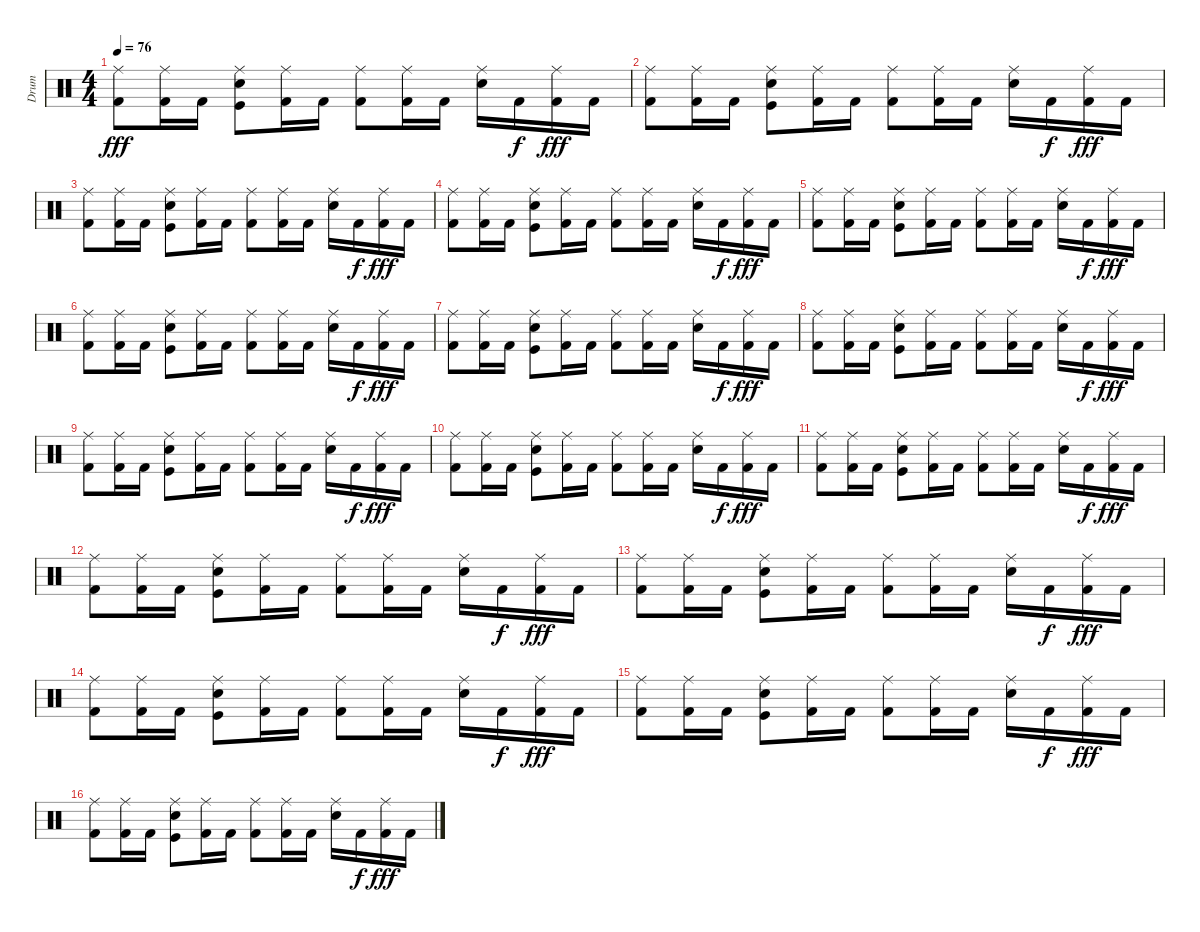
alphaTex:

\track ("Drum" "Drum") {instrument percussion}
\staff {score}
\articulation defaults
\ts (4 4)
\tempo 76
\clef neutral
\ks c
("Kick (hit) 2" "Ride (middle)").8{dy fff} ("Kick (hit) 2" "Ride (middle)").16 "Kick (hit) 2".16 ("Kick (hit)" "Electric Snare (hit)" "Ride (middle)").8 ("Kick (hit) 2" "Ride (middle)").16 "Kick (hit) 2".16 ("Kick (hit) 2" "Ride (middle)").8 ("Kick (hit) 2" "Ride (middle)").16 "Kick (hit) 2".16 ("Electric Snare (hit)" "Ride (middle)").16 "Kick (hit) 2".16{dy f} ("Kick (hit) 2" "Ride (middle)").16{dy fff} "Kick (hit) 2".16 |
("Kick (hit) 2" "Ride (middle)").8 ("Kick (hit) 2" "Ride (middle)").16 "Kick (hit) 2".16 ("Kick (hit)" "Electric Snare (hit)" "Ride (middle)").8 ("Kick (hit) 2" "Ride (middle)").16 "Kick (hit) 2".16 ("Kick (hit) 2" "Ride (middle)").8 ("Kick (hit) 2" "Ride (middle)").16 "Kick (hit) 2".16 ("Electric Snare (hit)" "Ride (middle)").16 "Kick (hit) 2".16{dy f} ("Kick (hit) 2" "Ride (middle)").16{dy fff} "Kick (hit) 2".16 |
("Kick (hit) 2" "Ride (middle)").8 ("Kick (hit) 2" "Ride (middle)").16 "Kick (hit) 2".16 ("Kick (hit)" "Electric Snare (hit)" "Ride (middle)").8 ("Kick (hit) 2" "Ride (middle)").16 "Kick (hit) 2".16 ("Kick (hit) 2" "Ride (middle)").8 ("Kick (hit) 2" "Ride (middle)").16 "Kick (hit) 2".16 ("Electric Snare (hit)" "Ride (middle)").16 "Kick (hit) 2".16{dy f} ("Kick (hit) 2" "Ride (middle)").16{dy fff} "Kick (hit) 2".16 |
("Kick (hit) 2" "Ride (middle)").8 ("Kick (hit) 2" "Ride (middle)").16 "Kick (hit) 2".16 ("Kick (hit)" "Electric Snare (hit)" "Ride (middle)").8 ("Kick (hit) 2" "Ride (middle)").16 "Kick (hit) 2".16 ("Kick (hit) 2" "Ride (middle)").8 ("Kick (hit) 2" "Ride (middle)").16 "Kick (hit) 2".16 ("Electric Snare (hit)" "Ride (middle)").16 "Kick (hit) 2".16{dy f} ("Kick (hit) 2" "Ride (middle)").16{dy fff} "Kick (hit) 2".16 |
("Kick (hit) 2" "Ride (middle)").8 ("Kick (hit) 2" "Ride (middle)").16 "Kick (hit) 2".16 ("Kick (hit)" "Electric Snare (hit)" "Ride (middle)").8 ("Kick (hit) 2" "Ride (middle)").16 "Kick (hit) 2".16 ("Kick (hit) 2" "Ride (middle)").8 ("Kick (hit) 2" "Ride (middle)").16 "Kick (hit) 2".16 ("Electric Snare (hit)" "Ride (middle)").16 "Kick (hit) 2".16{dy f} ("Kick (hit) 2" "Ride (middle)").16{dy fff} "Kick (hit) 2".16 |
("Kick (hit) 2" "Ride (middle)").8 ("Kick (hit) 2" "Ride (middle)").16 "Kick (hit) 2".16 ("Kick (hit)" "Electric Snare (hit)" "Ride (middle)").8 ("Kick (hit) 2" "Ride (middle)").16 "Kick (hit) 2".16 ("Kick (hit) 2" "Ride (middle)").8 ("Kick (hit) 2" "Ride (middle)").16 "Kick (hit) 2".16 ("Electric Snare (hit)" "Ride (middle)").16 "Kick (hit) 2".16{dy f} ("Kick (hit) 2" "Ride (middle)").16{dy fff} "Kick (hit) 2".16 |
("Kick (hit) 2" "Ride (middle)").8 ("Kick (hit) 2" "Ride (middle)").16 "Kick (hit) 2".16 ("Kick (hit)" "Electric Snare (hit)" "Ride (middle)").8 ("Kick (hit) 2" "Ride (middle)").16 "Kick (hit) 2".16 ("Kick (hit) 2" "Ride (middle)").8 ("Kick (hit) 2" "Ride (middle)").16 "Kick (hit) 2".16 ("Electric Snare (hit)" "Ride (middle)").16 "Kick (hit) 2".16{dy f} ("Kick (hit) 2" "Ride (middle)").16{dy fff} "Kick (hit) 2".16 |
("Kick (hit) 2" "Ride (middle)").8 ("Kick (hit) 2" "Ride (middle)").16 "Kick (hit) 2".16 ("Kick (hit)" "Electric Snare (hit)" "Ride (middle)").8 ("Kick (hit) 2" "Ride (middle)").16 "Kick (hit) 2".16 ("Kick (hit) 2" "Ride (middle)").8 ("Kick (hit) 2" "Ride (middle)").16 "Kick (hit) 2".16 ("Electric Snare (hit)" "Ride (middle)").16 "Kick (hit) 2".16{dy f} ("Kick (hit) 2" "Ride (middle)").16{dy fff} "Kick (hit) 2".16 |
("Kick (hit) 2" "Ride (middle)").8 ("Kick (hit) 2" "Ride (middle)").16 "Kick (hit) 2".16 ("Kick (hit)" "Electric Snare (hit)" "Ride (middle)").8 ("Kick (hit) 2" "Ride (middle)").16 "Kick (hit) 2".16 ("Kick (hit) 2" "Ride (middle)").8 ("Kick (hit) 2" "Ride (middle)").16 "Kick (hit) 2".16 ("Electric Snare (hit)" "Ride (middle)").16 "Kick (hit) 2".16{dy f} ("Kick (hit) 2" "Ride (middle)").16{dy fff} "Kick (hit) 2".16 |
("Kick (hit) 2" "Ride (middle)").8 ("Kick (hit) 2" "Ride (middle)").16 "Kick (hit) 2".16 ("Kick (hit)" "Electric Snare (hit)" "Ride (middle)").8 ("Kick (hit) 2" "Ride (middle)").16 "Kick (hit) 2".16 ("Kick (hit) 2" "Ride (middle)").8 ("Kick (hit) 2" "Ride (middle)").16 "Kick (hit) 2".16 ("Electric Snare (hit)" "Ride (middle)").16 "Kick (hit) 2".16{dy f} ("Kick (hit) 2" "Ride (middle)").16{dy fff} "Kick (hit) 2".16 |
("Kick (hit) 2" "Ride (middle)").8 ("Kick (hit) 2" "Ride (middle)").16 "Kick (hit) 2".16 ("Kick (hit)" "Electric Snare (hit)" "Ride (middle)").8 ("Kick (hit) 2" "Ride (middle)").16 "Kick (hit) 2".16 ("Kick (hit) 2" "Ride (middle)").8 ("Kick (hit) 2" "Ride (middle)").16 "Kick (hit) 2".16 ("Electric Snare (hit)" "Ride (middle)").16 "Kick (hit) 2".16{dy f} ("Kick (hit) 2" "Ride (middle)").16{dy fff} "Kick (hit) 2".16 |
("Kick (hit) 2" "Ride (middle)").8 ("Kick (hit) 2" "Ride (middle)").16 "Kick (hit) 2".16 ("Kick (hit)" "Electric Snare (hit)" "Ride (middle)").8 ("Kick (hit) 2" "Ride (middle)").16 "Kick (hit) 2".16 ("Kick (hit) 2" "Ride (middle)").8 ("Kick (hit) 2" "Ride (middle)").16 "Kick (hit) 2".16 ("Electric Snare (hit)" "Ride (middle)").16 "Kick (hit) 2".16{dy f} ("Kick (hit) 2" "Ride (middle)").16{dy fff} "Kick (hit) 2".16 |
("Kick (hit) 2" "Ride (middle)").8 ("Kick (hit) 2" "Ride (middle)").16 "Kick (hit) 2".16 ("Kick (hit)" "Electric Snare (hit)" "Ride (middle)").8 ("Kick (hit) 2" "Ride (middle)").16 "Kick (hit) 2".16 ("Kick (hit) 2" "Ride (middle)").8 ("Kick (hit) 2" "Ride (middle)").16 "Kick (hit) 2".16 ("Electric Snare (hit)" "Ride (middle)").16 "Kick (hit) 2".16{dy f} ("Kick (hit) 2" "Ride (middle)").16{dy fff} "Kick (hit) 2".16 |
("Kick (hit) 2" "Ride (middle)").8 ("Kick (hit) 2" "Ride (middle)").16 "Kick (hit) 2".16 ("Kick (hit)" "Electric Snare (hit)" "Ride (middle)").8 ("Kick (hit) 2" "Ride (middle)").16 "Kick (hit) 2".16 ("Kick (hit) 2" "Ride (middle)").8 ("Kick (hit) 2" "Ride (middle)").16 "Kick (hit) 2".16 ("Electric Snare (hit)" "Ride (middle)").16 "Kick (hit) 2".16{dy f} ("Kick (hit) 2" "Ride (middle)").16{dy fff} "Kick (hit) 2".16 |
("Kick (hit) 2" "Ride (middle)").8 ("Kick (hit) 2" "Ride (middle)").16 "Kick (hit) 2".16 ("Kick (hit)" "Electric Snare (hit)" "Ride (middle)").8 ("Kick (hit) 2" "Ride (middle)").16 "Kick (hit) 2".16 ("Kick (hit) 2" "Ride (middle)").8 ("Kick (hit) 2" "Ride (middle)").16 "Kick (hit) 2".16 ("Electric Snare (hit)" "Ride (middle)").16 "Kick (hit) 2".16{dy f} ("Kick (hit) 2" "Ride (middle)").16{dy fff} "Kick (hit) 2".16 |
("Kick (hit) 2" "Ride (middle)").8 ("Kick (hit) 2" "Ride (middle)").16 "Kick (hit) 2".16 ("Kick (hit)" "Electric Snare (hit)" "Ride (middle)").8 ("Kick (hit) 2" "Ride (middle)").16 "Kick (hit) 2".16 ("Kick (hit) 2" "Ride (middle)").8 ("Kick (hit) 2" "Ride (middle)").16 "Kick (hit) 2".16 ("Electric Snare (hit)" "Ride (middle)").16 "Kick (hit) 2".16{dy f} ("Kick (hit) 2" "Ride (middle)").16{dy fff} "Kick (hit) 2".16
